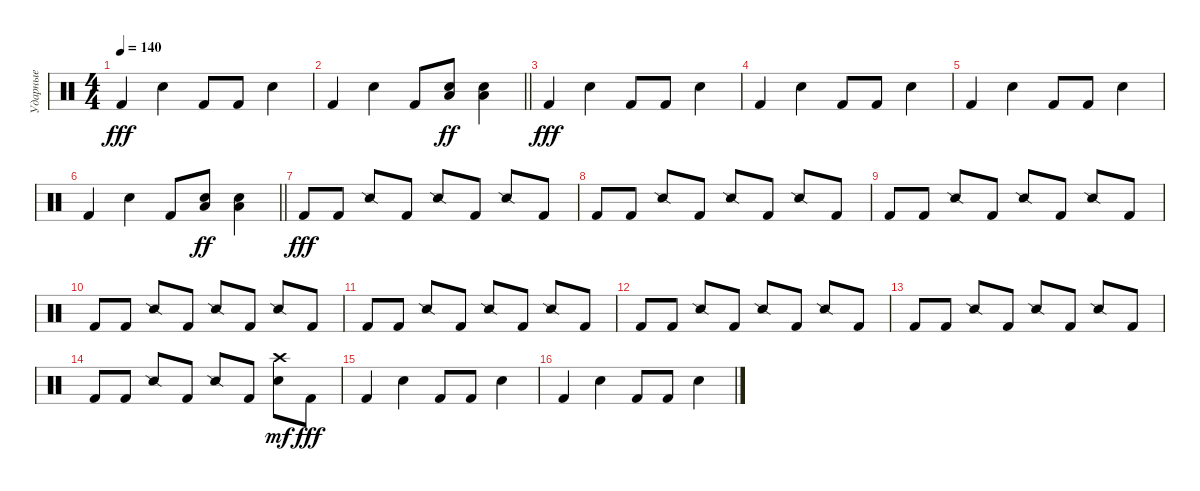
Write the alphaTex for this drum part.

\track ("Ударные" "Ударные") {instrument percussion}
\staff {score}
\articulation defaults
\ts (4 4)
\tempo 140
\clef neutral
\ks c "Kick (hit) 2".4{dy fff} "Electric Snare (hit)".4 "Kick (hit) 2".8 "Kick (hit) 2".8 "Electric Snare (hit)".4
|
\barLineRight lightlight "Kick (hit) 2".4 "Electric Snare (hit)".4 "Kick (hit) 2".8
("Low Tom (hit)" "Electric Snare (hit)").8{dy ff} ("Low Floor Tom (hit)" "Electric Snare (hit)").4 |
"Kick (hit) 2".4{dy fff} "Electric Snare (hit)".4 "Kick (hit) 2".8 "Kick (hit) 2".8 "Electric Snare (hit)".4 |
"Kick (hit) 2".4 "Electric Snare (hit)".4 "Kick (hit) 2".8 "Kick (hit) 2".8 "Electric Snare (hit)".4 |
"Kick (hit) 2".4 "Electric Snare (hit)".4 "Kick (hit) 2".8 "Kick (hit) 2".8 "Electric Snare (hit)".4 |
\barLineRight lightlight "Kick (hit) 2".4 "Electric Snare (hit)".4 "Kick (hit) 2".8
("Low Tom (hit)" "Electric Snare (hit)").8{dy ff} ("Low Floor Tom (hit)" "Electric Snare (hit)").4 |
"Kick (hit) 2".8{dy fff} "Kick (hit) 2".8 "Snare (side stick) 2".8 "Kick (hit) 2".8 "Snare (side stick) 2".8 "Kick (hit) 2".8 "Snare (side stick) 2".8 "Kick (hit) 2".8 |
"Kick (hit) 2".8 "Kick (hit) 2".8 "Snare (side stick) 2".8 "Kick (hit) 2".8 "Snare (side stick) 2".8 "Kick (hit) 2".8 "Snare (side stick) 2".8 "Kick (hit) 2".8 |
"Kick (hit) 2".8 "Kick (hit) 2".8 "Snare (side stick) 2".8 "Kick (hit) 2".8 "Snare (side stick) 2".8 "Kick (hit) 2".8 "Snare (side stick) 2".8 "Kick (hit) 2".8 |
"Kick (hit) 2".8 "Kick (hit) 2".8 "Snare (side stick) 2".8 "Kick (hit) 2".8 "Snare (side stick) 2".8 "Kick (hit) 2".8 "Snare (side stick) 2".8 "Kick (hit) 2".8 |
"Kick (hit) 2".8 "Kick (hit) 2".8 "Snare (side stick) 2".8 "Kick (hit) 2".8 "Snare (side stick) 2".8 "Kick (hit) 2".8 "Snare (side stick) 2".8 "Kick (hit) 2".8 |
"Kick (hit) 2".8 "Kick (hit) 2".8 "Snare (side stick) 2".8 "Kick (hit) 2".8 "Snare (side stick) 2".8 "Kick (hit) 2".8 "Snare (side stick) 2".8 "Kick (hit) 2".8 |
"Kick (hit) 2".8 "Kick (hit) 2".8 "Snare (side stick) 2".8 "Kick (hit) 2".8 "Snare (side stick) 2".8 "Kick (hit) 2".8 "Snare (side stick) 2".8 "Kick (hit) 2".8 |
"Kick (hit) 2".8 "Kick (hit) 2".8 "Snare (side stick) 2".8 "Kick (hit) 2".8 "Snare (side stick) 2".8 "Kick (hit) 2".8 ("Electric Snare (hit)" "Crash high (hit)").8{dy mf} "Kick (hit) 2".8{dy fff} |
"Kick (hit) 2".4 "Electric Snare (hit)".4 "Kick (hit) 2".8 "Kick (hit) 2".8 "Electric Snare (hit)".4 |
"Kick (hit) 2".4 "Electric Snare (hit)".4 "Kick (hit) 2".8 "Kick (hit) 2".8 "Electric Snare (hit)".4
